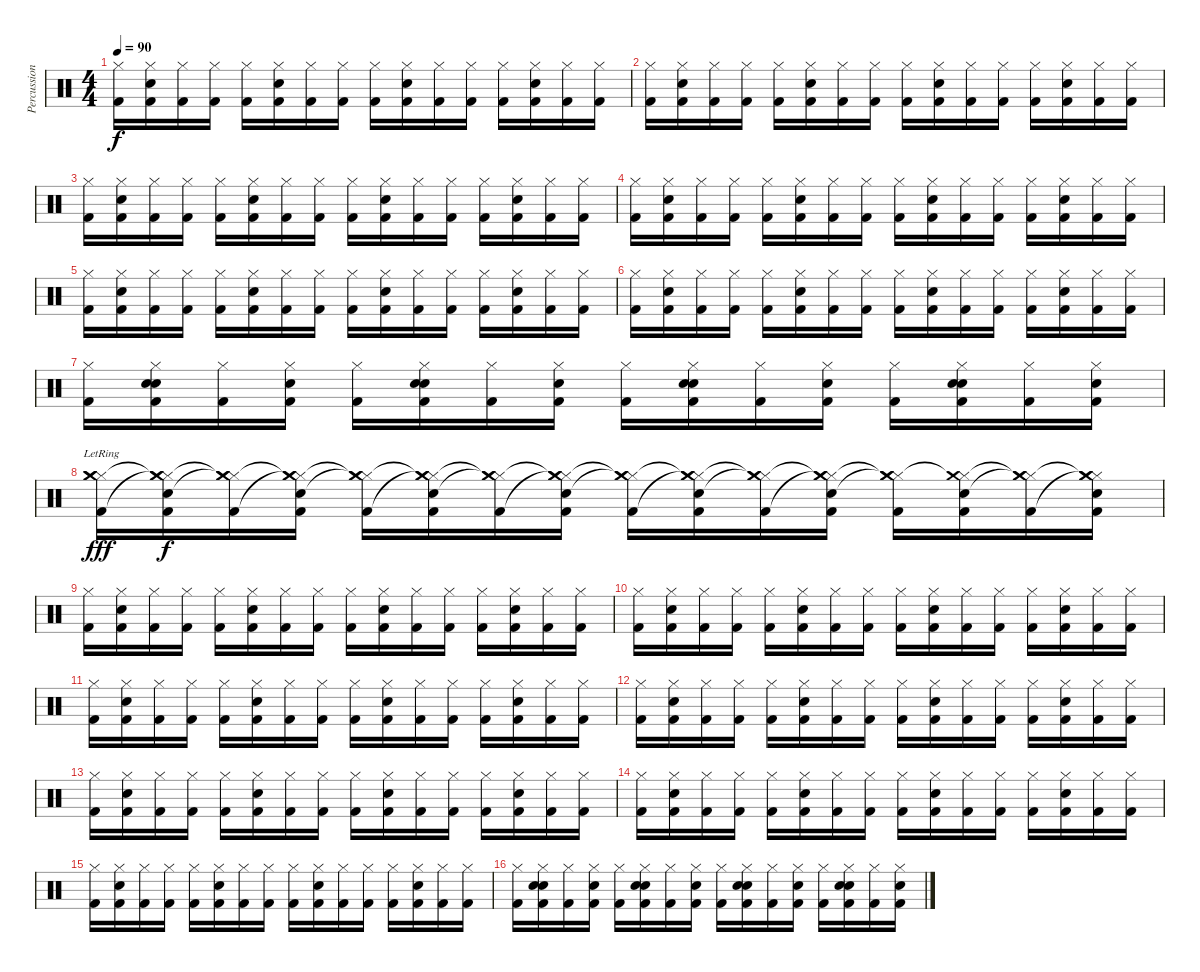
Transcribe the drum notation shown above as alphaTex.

\track ("Percussion" "Percussion") {instrument percussion}
\staff {score}
\articulation defaults
\ts (4 4)
\tempo 90
\clef neutral
\ks c
("Hi-Hat (closed)" "Kick (hit) 2").16{dy f} ("Hi-Hat (closed)" "Snare (hit) 2" "Kick (hit) 2").16 ("Hi-Hat (closed)" "Kick (hit) 2").16 ("Hi-Hat (closed)" "Kick (hit) 2").16 ("Hi-Hat (closed)" "Kick (hit) 2").16 ("Hi-Hat (closed)" "Snare (hit) 2" "Kick (hit) 2").16 ("Hi-Hat (closed)" "Kick (hit) 2").16 ("Hi-Hat (closed)" "Kick (hit) 2").16 ("Hi-Hat (closed)" "Kick (hit) 2").16 ("Hi-Hat (closed)" "Snare (hit) 2" "Kick (hit) 2").16 ("Hi-Hat (closed)" "Kick (hit) 2").16 ("Hi-Hat (closed)" "Kick (hit) 2").16 ("Hi-Hat (closed)" "Kick (hit) 2").16 ("Hi-Hat (closed)" "Snare (hit) 2" "Kick (hit) 2").16 ("Hi-Hat (closed)" "Kick (hit) 2").16 ("Hi-Hat (closed)" "Kick (hit) 2").16 |
("Hi-Hat (closed)" "Kick (hit) 2").16 ("Hi-Hat (closed)" "Snare (hit) 2" "Kick (hit) 2").16 ("Hi-Hat (closed)" "Kick (hit) 2").16 ("Hi-Hat (closed)" "Kick (hit) 2").16 ("Hi-Hat (closed)" "Kick (hit) 2").16 ("Hi-Hat (closed)" "Snare (hit) 2" "Kick (hit) 2").16 ("Hi-Hat (closed)" "Kick (hit) 2").16 ("Hi-Hat (closed)" "Kick (hit) 2").16 ("Hi-Hat (closed)" "Kick (hit) 2").16 ("Hi-Hat (closed)" "Snare (hit) 2" "Kick (hit) 2").16 ("Hi-Hat (closed)" "Kick (hit) 2").16 ("Hi-Hat (closed)" "Kick (hit) 2").16 ("Hi-Hat (closed)" "Kick (hit) 2").16 ("Hi-Hat (closed)" "Snare (hit) 2" "Kick (hit) 2").16 ("Hi-Hat (closed)" "Kick (hit) 2").16 ("Hi-Hat (closed)" "Kick (hit) 2").16 |
("Hi-Hat (closed)" "Kick (hit) 2").16 ("Hi-Hat (closed)" "Snare (hit) 2" "Kick (hit) 2").16 ("Hi-Hat (closed)" "Kick (hit) 2").16 ("Hi-Hat (closed)" "Kick (hit) 2").16 ("Hi-Hat (closed)" "Kick (hit) 2").16 ("Hi-Hat (closed)" "Snare (hit) 2" "Kick (hit) 2").16 ("Hi-Hat (closed)" "Kick (hit) 2").16 ("Hi-Hat (closed)" "Kick (hit) 2").16 ("Hi-Hat (closed)" "Kick (hit) 2").16 ("Hi-Hat (closed)" "Snare (hit) 2" "Kick (hit) 2").16 ("Hi-Hat (closed)" "Kick (hit) 2").16 ("Hi-Hat (closed)" "Kick (hit) 2").16 ("Hi-Hat (closed)" "Kick (hit) 2").16 ("Hi-Hat (closed)" "Snare (hit) 2" "Kick (hit) 2").16 ("Hi-Hat (closed)" "Kick (hit) 2").16 ("Hi-Hat (closed)" "Kick (hit) 2").16 |
("Hi-Hat (closed)" "Kick (hit) 2").16 ("Hi-Hat (closed)" "Snare (hit) 2" "Kick (hit) 2").16 ("Hi-Hat (closed)" "Kick (hit) 2").16 ("Hi-Hat (closed)" "Kick (hit) 2").16 ("Hi-Hat (closed)" "Kick (hit) 2").16 ("Hi-Hat (closed)" "Snare (hit) 2" "Kick (hit) 2").16 ("Hi-Hat (closed)" "Kick (hit) 2").16 ("Hi-Hat (closed)" "Kick (hit) 2").16 ("Hi-Hat (closed)" "Kick (hit) 2").16 ("Hi-Hat (closed)" "Snare (hit) 2" "Kick (hit) 2").16 ("Hi-Hat (closed)" "Kick (hit) 2").16 ("Hi-Hat (closed)" "Kick (hit) 2").16 ("Hi-Hat (closed)" "Kick (hit) 2").16 ("Hi-Hat (closed)" "Snare (hit) 2" "Kick (hit) 2").16 ("Hi-Hat (closed)" "Kick (hit) 2").16 ("Hi-Hat (closed)" "Kick (hit) 2").16 |
("Hi-Hat (closed)" "Kick (hit) 2").16 ("Hi-Hat (closed)" "Snare (hit) 2" "Kick (hit) 2").16 ("Hi-Hat (closed)" "Kick (hit) 2").16 ("Hi-Hat (closed)" "Kick (hit) 2").16 ("Hi-Hat (closed)" "Kick (hit) 2").16 ("Hi-Hat (closed)" "Snare (hit) 2" "Kick (hit) 2").16 ("Hi-Hat (closed)" "Kick (hit) 2").16 ("Hi-Hat (closed)" "Kick (hit) 2").16 ("Hi-Hat (closed)" "Kick (hit) 2").16 ("Hi-Hat (closed)" "Snare (hit) 2" "Kick (hit) 2").16 ("Hi-Hat (closed)" "Kick (hit) 2").16 ("Hi-Hat (closed)" "Kick (hit) 2").16 ("Hi-Hat (closed)" "Kick (hit) 2").16 ("Hi-Hat (closed)" "Snare (hit) 2" "Kick (hit) 2").16 ("Hi-Hat (closed)" "Kick (hit) 2").16 ("Hi-Hat (closed)" "Kick (hit) 2").16 |
("Hi-Hat (closed)" "Kick (hit) 2").16 ("Hi-Hat (closed)" "Snare (hit) 2" "Kick (hit) 2").16 ("Hi-Hat (closed)" "Kick (hit) 2").16 ("Hi-Hat (closed)" "Kick (hit) 2").16 ("Hi-Hat (closed)" "Kick (hit) 2").16 ("Hi-Hat (closed)" "Snare (hit) 2" "Kick (hit) 2").16 ("Hi-Hat (closed)" "Kick (hit) 2").16 ("Hi-Hat (closed)" "Kick (hit) 2").16 ("Hi-Hat (closed)" "Kick (hit) 2").16 ("Hi-Hat (closed)" "Snare (hit) 2" "Kick (hit) 2").16 ("Hi-Hat (closed)" "Kick (hit) 2").16 ("Hi-Hat (closed)" "Kick (hit) 2").16 ("Hi-Hat (closed)" "Kick (hit) 2").16 ("Hi-Hat (closed)" "Snare (hit) 2" "Kick (hit) 2").16 ("Hi-Hat (closed)" "Kick (hit) 2").16 ("Hi-Hat (closed)" "Kick (hit) 2").16 |
("Hi-Hat (closed)" "Kick (hit) 2").16 ("Hi-Hat (closed)" "Snare (hit) 2" "Snare (hit) 2" "Kick (hit) 2").16 ("Hi-Hat (closed)" "Kick (hit) 2").16 ("Hi-Hat (closed)" "Snare (hit) 2" "Kick (hit) 2").16 ("Hi-Hat (closed)" "Kick (hit) 2").16 ("Hi-Hat (closed)" "Snare (hit) 2" "Snare (hit) 2" "Kick (hit) 2").16 ("Hi-Hat (closed)" "Kick (hit) 2").16 ("Hi-Hat (closed)" "Snare (hit) 2" "Kick (hit) 2").16 ("Hi-Hat (closed)" "Kick (hit) 2").16 ("Hi-Hat (closed)" "Snare (hit) 2" "Snare (hit) 2" "Kick (hit) 2").16 ("Hi-Hat (closed)" "Kick (hit) 2").16 ("Hi-Hat (closed)" "Snare (hit) 2" "Kick (hit) 2").16 ("Hi-Hat (closed)" "Kick (hit) 2").16 ("Hi-Hat (closed)" "Snare (hit) 2" "Snare (hit) 2" "Kick (hit) 2").16 ("Hi-Hat (closed)" "Kick (hit) 2").16 ("Hi-Hat (closed)" "Snare (hit) 2" "Kick (hit) 2").16 |
("Hi-Hat (closed)" "Crash medium (hit)"{lr} "Crash medium (hit)"{lr} "Kick (hit) 2").16{dy fff} ("Hi-Hat (closed)" "Snare (hit) 2" "Crash medium (hit)"{t} "Crash medium (hit)"{t} "Kick (hit) 2").16{dy f} ("Hi-Hat (closed)" "Crash medium (hit)"{t} "Crash medium (hit)"{t} "Kick (hit) 2").16 ("Hi-Hat (closed)" "Snare (hit) 2" "Crash medium (hit)"{t} "Crash medium (hit)"{t} "Kick (hit) 2").16 ("Hi-Hat (closed)" "Crash medium (hit)"{t} "Crash medium (hit)"{t} "Kick (hit) 2").16 ("Hi-Hat (closed)" "Snare (hit) 2" "Crash medium (hit)"{t} "Crash medium (hit)"{t} "Kick (hit) 2").16 ("Hi-Hat (closed)" "Crash medium (hit)"{t} "Crash medium (hit)"{t} "Kick (hit) 2").16 ("Hi-Hat (closed)" "Snare (hit) 2" "Crash medium (hit)"{t} "Crash medium (hit)"{t} "Kick (hit) 2").16 ("Hi-Hat (closed)" "Crash medium (hit)"{t} "Crash medium (hit)"{t} "Kick (hit) 2").16 ("Hi-Hat (closed)" "Snare (hit) 2" "Crash medium (hit)"{t} "Crash medium (hit)"{t} "Kick (hit) 2").16 ("Hi-Hat (closed)" "Crash medium (hit)"{t} "Crash medium (hit)"{t} "Kick (hit) 2").16 ("Hi-Hat (closed)" "Snare (hit) 2" "Crash medium (hit)"{t} "Crash medium (hit)"{t} "Kick (hit) 2").16 ("Hi-Hat (closed)" "Crash medium (hit)"{t} "Crash medium (hit)"{t} "Kick (hit) 2").16 ("Hi-Hat (closed)" "Snare (hit) 2" "Crash medium (hit)"{t} "Kick (hit) 2").16 ("Hi-Hat (closed)" "Crash medium (hit)"{t} "Crash medium (hit)"{t} "Kick (hit) 2").16 ("Hi-Hat (closed)" "Snare (hit) 2" "Crash medium (hit)"{t} "Crash medium (hit)"{t} "Kick (hit) 2").16 |
("Hi-Hat (closed)" "Kick (hit) 2").16 ("Hi-Hat (closed)" "Snare (hit) 2" "Kick (hit) 2").16 ("Hi-Hat (closed)" "Kick (hit) 2").16 ("Hi-Hat (closed)" "Kick (hit) 2").16 ("Hi-Hat (closed)" "Kick (hit) 2").16 ("Hi-Hat (closed)" "Snare (hit) 2" "Kick (hit) 2").16 ("Hi-Hat (closed)" "Kick (hit) 2").16 ("Hi-Hat (closed)" "Kick (hit) 2").16 ("Hi-Hat (closed)" "Kick (hit) 2").16 ("Hi-Hat (closed)" "Snare (hit) 2" "Kick (hit) 2").16 ("Hi-Hat (closed)" "Kick (hit) 2").16 ("Hi-Hat (closed)" "Kick (hit) 2").16 ("Hi-Hat (closed)" "Kick (hit) 2").16 ("Hi-Hat (closed)" "Snare (hit) 2" "Kick (hit) 2").16 ("Hi-Hat (closed)" "Kick (hit) 2").16 ("Hi-Hat (closed)" "Kick (hit) 2").16 |
("Hi-Hat (closed)" "Kick (hit) 2").16 ("Hi-Hat (closed)" "Snare (hit) 2" "Kick (hit) 2").16 ("Hi-Hat (closed)" "Kick (hit) 2").16 ("Hi-Hat (closed)" "Kick (hit) 2").16 ("Hi-Hat (closed)" "Kick (hit) 2").16 ("Hi-Hat (closed)" "Snare (hit) 2" "Kick (hit) 2").16 ("Hi-Hat (closed)" "Kick (hit) 2").16 ("Hi-Hat (closed)" "Kick (hit) 2").16 ("Hi-Hat (closed)" "Kick (hit) 2").16 ("Hi-Hat (closed)" "Snare (hit) 2" "Kick (hit) 2").16 ("Hi-Hat (closed)" "Kick (hit) 2").16 ("Hi-Hat (closed)" "Kick (hit) 2").16 ("Hi-Hat (closed)" "Kick (hit) 2").16 ("Hi-Hat (closed)" "Snare (hit) 2" "Kick (hit) 2").16 ("Hi-Hat (closed)" "Kick (hit) 2").16 ("Hi-Hat (closed)" "Kick (hit) 2").16 |
("Hi-Hat (closed)" "Kick (hit) 2").16 ("Hi-Hat (closed)" "Snare (hit) 2" "Kick (hit) 2").16 ("Hi-Hat (closed)" "Kick (hit) 2").16 ("Hi-Hat (closed)" "Kick (hit) 2").16 ("Hi-Hat (closed)" "Kick (hit) 2").16 ("Hi-Hat (closed)" "Snare (hit) 2" "Kick (hit) 2").16 ("Hi-Hat (closed)" "Kick (hit) 2").16 ("Hi-Hat (closed)" "Kick (hit) 2").16 ("Hi-Hat (closed)" "Kick (hit) 2").16 ("Hi-Hat (closed)" "Snare (hit) 2" "Kick (hit) 2").16 ("Hi-Hat (closed)" "Kick (hit) 2").16 ("Hi-Hat (closed)" "Kick (hit) 2").16 ("Hi-Hat (closed)" "Kick (hit) 2").16 ("Hi-Hat (closed)" "Snare (hit) 2" "Kick (hit) 2").16 ("Hi-Hat (closed)" "Kick (hit) 2").16 ("Hi-Hat (closed)" "Kick (hit) 2").16 |
("Hi-Hat (closed)" "Kick (hit) 2").16 ("Hi-Hat (closed)" "Snare (hit) 2" "Kick (hit) 2").16 ("Hi-Hat (closed)" "Kick (hit) 2").16 ("Hi-Hat (closed)" "Kick (hit) 2").16 ("Hi-Hat (closed)" "Kick (hit) 2").16 ("Hi-Hat (closed)" "Snare (hit) 2" "Kick (hit) 2").16 ("Hi-Hat (closed)" "Kick (hit) 2").16 ("Hi-Hat (closed)" "Kick (hit) 2").16 ("Hi-Hat (closed)" "Kick (hit) 2").16 ("Hi-Hat (closed)" "Snare (hit) 2" "Kick (hit) 2").16 ("Hi-Hat (closed)" "Kick (hit) 2").16 ("Hi-Hat (closed)" "Kick (hit) 2").16 ("Hi-Hat (closed)" "Kick (hit) 2").16 ("Hi-Hat (closed)" "Snare (hit) 2" "Kick (hit) 2").16 ("Hi-Hat (closed)" "Kick (hit) 2").16 ("Hi-Hat (closed)" "Kick (hit) 2").16 |
("Hi-Hat (closed)" "Kick (hit) 2").16 ("Hi-Hat (closed)" "Snare (hit) 2" "Kick (hit) 2").16 ("Hi-Hat (closed)" "Kick (hit) 2").16 ("Hi-Hat (closed)" "Kick (hit) 2").16 ("Hi-Hat (closed)" "Kick (hit) 2").16 ("Hi-Hat (closed)" "Snare (hit) 2" "Kick (hit) 2").16 ("Hi-Hat (closed)" "Kick (hit) 2").16 ("Hi-Hat (closed)" "Kick (hit) 2").16 ("Hi-Hat (closed)" "Kick (hit) 2").16 ("Hi-Hat (closed)" "Snare (hit) 2" "Kick (hit) 2").16 ("Hi-Hat (closed)" "Kick (hit) 2").16 ("Hi-Hat (closed)" "Kick (hit) 2").16 ("Hi-Hat (closed)" "Kick (hit) 2").16 ("Hi-Hat (closed)" "Snare (hit) 2" "Kick (hit) 2").16 ("Hi-Hat (closed)" "Kick (hit) 2").16 ("Hi-Hat (closed)" "Kick (hit) 2").16 |
("Hi-Hat (closed)" "Kick (hit) 2").16 ("Hi-Hat (closed)" "Snare (hit) 2" "Kick (hit) 2").16 ("Hi-Hat (closed)" "Kick (hit) 2").16 ("Hi-Hat (closed)" "Kick (hit) 2").16 ("Hi-Hat (closed)" "Kick (hit) 2").16 ("Hi-Hat (closed)" "Snare (hit) 2" "Kick (hit) 2").16 ("Hi-Hat (closed)" "Kick (hit) 2").16 ("Hi-Hat (closed)" "Kick (hit) 2").16 ("Hi-Hat (closed)" "Kick (hit) 2").16 ("Hi-Hat (closed)" "Snare (hit) 2" "Kick (hit) 2").16 ("Hi-Hat (closed)" "Kick (hit) 2").16 ("Hi-Hat (closed)" "Kick (hit) 2").16 ("Hi-Hat (closed)" "Kick (hit) 2").16 ("Hi-Hat (closed)" "Snare (hit) 2" "Kick (hit) 2").16 ("Hi-Hat (closed)" "Kick (hit) 2").16 ("Hi-Hat (closed)" "Kick (hit) 2").16 |
("Hi-Hat (closed)" "Kick (hit) 2").16 ("Hi-Hat (closed)" "Snare (hit) 2" "Kick (hit) 2").16 ("Hi-Hat (closed)" "Kick (hit) 2").16 ("Hi-Hat (closed)" "Kick (hit) 2").16 ("Hi-Hat (closed)" "Kick (hit) 2").16 ("Hi-Hat (closed)" "Snare (hit) 2" "Kick (hit) 2").16 ("Hi-Hat (closed)" "Kick (hit) 2").16 ("Hi-Hat (closed)" "Kick (hit) 2").16 ("Hi-Hat (closed)" "Kick (hit) 2").16 ("Hi-Hat (closed)" "Snare (hit) 2" "Kick (hit) 2").16 ("Hi-Hat (closed)" "Kick (hit) 2").16 ("Hi-Hat (closed)" "Kick (hit) 2").16 ("Hi-Hat (closed)" "Kick (hit) 2").16 ("Hi-Hat (closed)" "Snare (hit) 2" "Kick (hit) 2").16 ("Hi-Hat (closed)" "Kick (hit) 2").16 ("Hi-Hat (closed)" "Kick (hit) 2").16 |
("Hi-Hat (closed)" "Kick (hit) 2").16 ("Hi-Hat (closed)" "Snare (hit) 2" "Snare (hit) 2" "Kick (hit) 2").16 ("Hi-Hat (closed)" "Kick (hit) 2").16 ("Hi-Hat (closed)" "Snare (hit) 2" "Kick (hit) 2").16 ("Hi-Hat (closed)" "Kick (hit) 2").16 ("Hi-Hat (closed)" "Snare (hit) 2" "Snare (hit) 2" "Kick (hit) 2").16 ("Hi-Hat (closed)" "Kick (hit) 2").16 ("Hi-Hat (closed)" "Snare (hit) 2" "Kick (hit) 2").16 ("Hi-Hat (closed)" "Kick (hit) 2").16 ("Hi-Hat (closed)" "Snare (hit) 2" "Snare (hit) 2" "Kick (hit) 2").16 ("Hi-Hat (closed)" "Kick (hit) 2").16 ("Hi-Hat (closed)" "Snare (hit) 2" "Kick (hit) 2").16 ("Hi-Hat (closed)" "Kick (hit) 2").16 ("Hi-Hat (closed)" "Snare (hit) 2" "Snare (hit) 2" "Kick (hit) 2").16 ("Hi-Hat (closed)" "Kick (hit) 2").16 ("Hi-Hat (closed)" "Snare (hit) 2" "Kick (hit) 2").16
